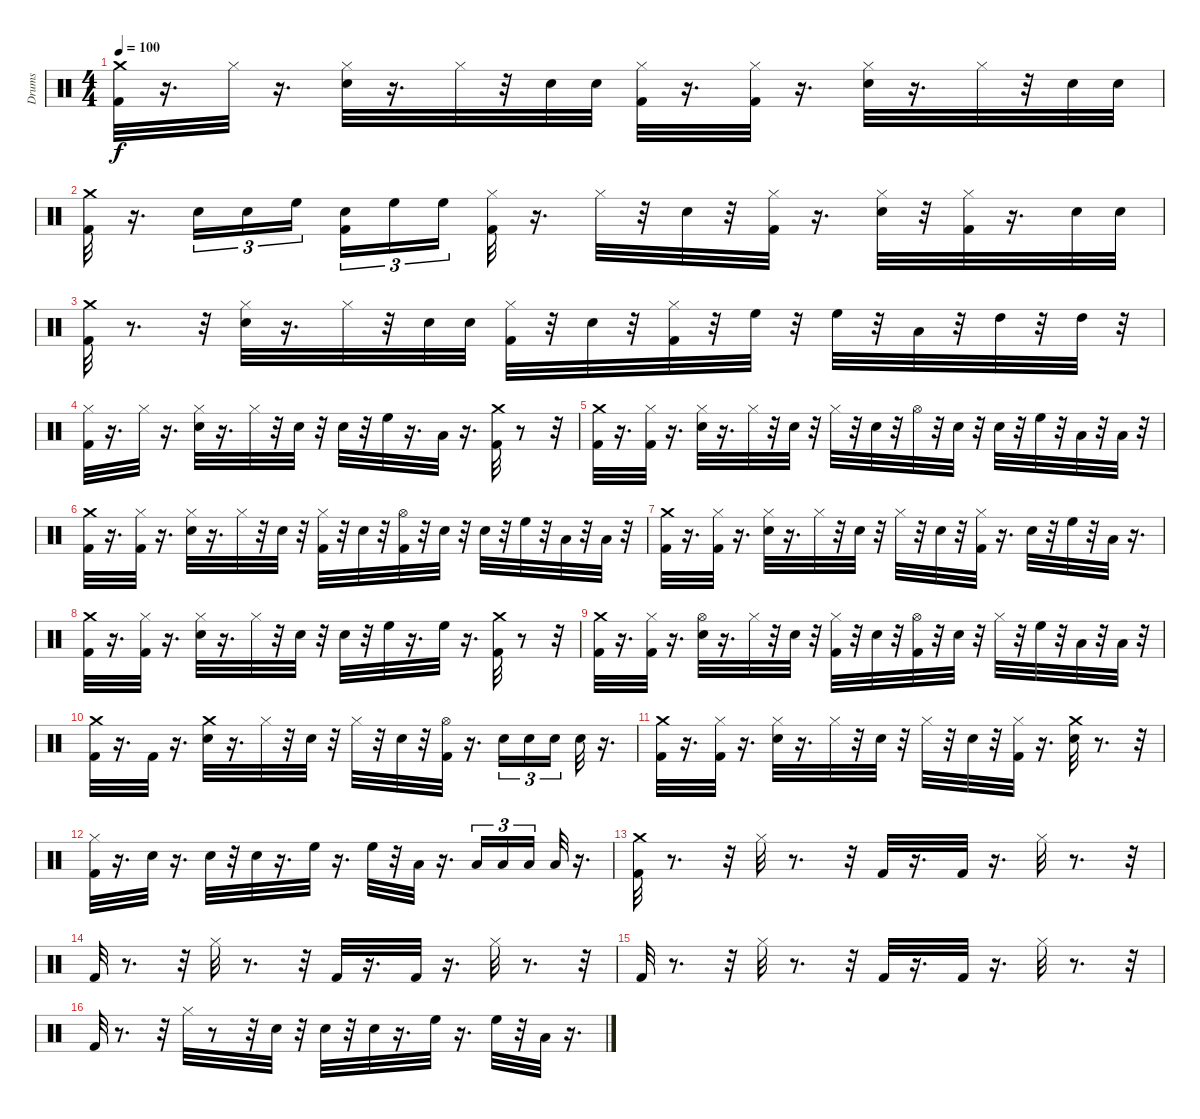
\track ("Drums" "Drums") {instrument percussion}
\staff {score}
\articulation defaults
\ts (4 4)
\tempo 100
\clef neutral
\ks c
("Kick (hit) 2" "Crash medium (hit)").32{dy f} r.16{d} "Hi-Hat (closed)".32 r.16{d} ("Hi-Hat (closed)" "Snare (hit) 2").32 r.16{d} "Hi-Hat (closed)".32 r.32 "Snare (hit) 2".32 "Snare (hit) 2".32 ("Kick (hit) 2" "Hi-Hat (closed)").32 r.16{d} ("Kick (hit) 2" "Hi-Hat (closed)").32 r.16{d} ("Hi-Hat (closed)" "Snare (hit) 2").32 r.16{d} "Hi-Hat (closed)".32 r.32 "Snare (hit) 2".32 "Snare (hit) 2".32 |
("Kick (hit) 2" "Crash medium (hit)").32 r.16{d} "Snare (hit) 2".16{tu (3 2)} "Electric Snare (hit)".16{tu (3 2)} "High Floor Tom (hit)".16{tu (3 2)} ("Kick (hit) 2" "Snare (hit) 2").16{tu (3 2)} "High Floor Tom (hit)".16{tu (3 2)} "High Floor Tom (hit)".16{tu (3 2)} ("Kick (hit) 2" "Hi-Hat (closed)").32 r.16{d} "Hi-Hat (closed)".32 r.32 "Snare (hit) 2".32 r.32 ("Kick (hit) 2" "Hi-Hat (closed)").32 r.16{d} ("Hi-Hat (closed)" "Snare (hit) 2").32 r.32 ("Kick (hit) 2" "Hi-Hat (closed)").32 r.16{d} "Snare (hit) 2".32 "Snare (hit) 2".32 |
("Kick (hit) 2" "Crash medium (hit)").32 r.8{d} r.32 ("Hi-Hat (closed)" "Snare (hit) 2").32 r.16{d} "Hi-Hat (closed)".32 r.32 "Snare (hit) 2".32 "Snare (hit) 2".32 ("Kick (hit) 2" "Hi-Hat (closed)").32 r.32 "Snare (hit) 2".32 r.32 ("Kick (hit) 2" "Hi-Hat (closed)").32 r.32 "High Floor Tom (hit)".32 r.32 "High Floor Tom (hit)".32 r.32 "Low Tom (hit)".32 r.32 "High Tom (hit)".32 r.32 "High Tom (hit)".32 r.32 |
("Kick (hit) 2" "Hi-Hat (closed)").32 r.16{d} "Hi-Hat (closed)".32 r.16{d} ("Hi-Hat (closed)" "Snare (hit) 2").32 r.16{d} "Hi-Hat (closed)".32 r.32 "Snare (hit) 2".32 r.32 "Snare (hit) 2".32 r.32 "High Floor Tom (hit)".32 r.16{d} "Low Tom (hit)".32 r.16{d} ("Kick (hit) 2" "Crash medium (hit)").32 r.8 r.32 |
("Crash medium (hit)" "Kick (hit) 2").32 r.16{d} ("Kick (hit) 2" "Hi-Hat (closed)").32 r.16{d} ("Hi-Hat (closed)" "Snare (hit) 2").32 r.16{d} "Hi-Hat (closed)".32 r.32 "Snare (hit) 2".32 r.32 "Hi-Hat (closed)".32 r.32 "Snare (hit) 2".32 r.32 "Hi-Hat (open)".32 r.32 "Snare (hit) 2".32 r.32 "Snare (hit) 2".32 r.32 "High Floor Tom (hit)".32 r.32 "Low Tom (hit)".32 r.32 "Low Tom (hit)".32 r.32 |
("Kick (hit) 2" "Crash medium (hit)").32 r.16{d} ("Kick (hit) 2" "Hi-Hat (closed)").32 r.16{d} ("Hi-Hat (closed)" "Snare (hit) 2").32 r.16{d} "Hi-Hat (closed)".32 r.32 "Snare (hit) 2".32 r.32 ("Kick (hit) 2" "Hi-Hat (closed)").32 r.32 "Snare (hit) 2".32 r.32 ("Kick (hit) 2" "Hi-Hat (open)").32 r.32 "Snare (hit) 2".32 r.32 "Snare (hit) 2".32 r.32 "High Floor Tom (hit)".32 r.32 "Low Tom (hit)".32 r.32 "Low Tom (hit)".32 r.32 |
("Kick (hit) 2" "Crash medium (hit)").32 r.16{d} ("Kick (hit) 2" "Hi-Hat (closed)").32 r.16{d} ("Hi-Hat (closed)" "Snare (hit) 2").32 r.16{d} "Hi-Hat (closed)".32 r.32 "Snare (hit) 2".32 r.32 "Hi-Hat (closed)".32 r.32 "Snare (hit) 2".32 r.32 ("Kick (hit) 2" "Hi-Hat (closed)").32 r.16{d} "Snare (hit) 2".32 r.32 "High Floor Tom (hit)".32 r.32 "Low Tom (hit)".32 r.16{d} |
("Kick (hit) 2" "Crash medium (hit)").32 r.16{d} ("Kick (hit) 2" "Hi-Hat (closed)").32 r.16{d} ("Hi-Hat (closed)" "Snare (hit) 2").32 r.16{d} "Hi-Hat (closed)".32 r.32 "Snare (hit) 2".32 r.32 "Snare (hit) 2".32 r.32 "High Floor Tom (hit)".32 r.16{d} "High Floor Tom (hit)".32 r.16{d} ("Crash medium (hit)" "Kick (hit) 2").32 r.8 r.32 |
("Kick (hit) 2" "Crash medium (hit)").32 r.16{d} ("Kick (hit) 2" "Hi-Hat (closed)").32 r.16{d} ("Hi-Hat (open)" "Snare (hit) 2").32 r.16{d} "Hi-Hat (closed)".32 r.32 "Snare (hit) 2".32 r.32 ("Kick (hit) 2" "Hi-Hat (closed)").32 r.32 "Snare (hit) 2".32 r.32 ("Kick (hit) 2" "Hi-Hat (open)").32 r.32 "Snare (hit) 2".32 r.32 "Hi-Hat (closed)".32 r.32 "High Floor Tom (hit)".32 r.32 "Low Tom (hit)".32 r.32 "Low Tom (hit)".32 r.32 |
("Crash medium (hit)" "Kick (hit) 2").32 r.16{d} "Kick (hit) 2".32 r.16{d} ("Crash medium (hit)" "Snare (hit) 2").32 r.16{d} "Hi-Hat (closed)".32 r.32 "Snare (hit) 2".32 r.32 "Hi-Hat (closed)".32 r.32 "Snare (hit) 2".32 r.32 ("Hi-Hat (open)" "Kick (hit) 2").32 r.16{d} "Snare (hit) 2".16{tu (3 2)} "Snare (hit) 2".16{tu (3 2)} "Snare (hit) 2".16{tu (3 2)} "Snare (hit) 2".32 r.16{d} |
("Kick (hit) 2" "Crash medium (hit)").32 r.16{d} ("Kick (hit) 2" "Hi-Hat (closed)").32 r.16{d} ("Hi-Hat (closed)" "Snare (hit) 2").32 r.16{d} "Hi-Hat (closed)".32 r.32 "Snare (hit) 2".32 r.32 "Hi-Hat (closed)".32 r.32 "Snare (hit) 2".32 r.32 ("Kick (hit) 2" "Hi-Hat (closed)").32 r.16{d} ("Crash medium (hit)" "Snare (hit) 2").32 r.8{d} r.32 |
("Kick (hit) 2" "Hi-Hat (closed)").32 r.16{d} "Snare (hit) 2".32 r.16{d} "Snare (hit) 2".32 r.32 "Electric Snare (hit)".32 r.16{d} "High Floor Tom (hit)".32 r.16{d} "High Floor Tom (hit)".32 r.32 "Low Tom (hit)".32 r.16{d} "Low Tom (hit)".16{tu (3 2)} "Low Tom (hit)".16{tu (3 2)} "Low Tom (hit)".16{tu (3 2)} "Low Tom (hit)".32 r.16{d} |
("Kick (hit) 2" "Crash medium (hit)").32 r.8{d} r.32 "Hi-Hat (closed)".32 r.8{d} r.32 "Kick (hit) 2".32 r.16{d} "Kick (hit) 2".32 r.16{d} "Hi-Hat (closed)".32 r.8{d} r.32 |
"Kick (hit) 2".32 r.8{d} r.32 "Hi-Hat (closed)".32 r.8{d} r.32 "Kick (hit) 2".32 r.16{d} "Kick (hit) 2".32 r.16{d} "Hi-Hat (closed)".32 r.8{d} r.32 |
"Kick (hit) 2".32 r.8{d} r.32 "Hi-Hat (closed)".32 r.8{d} r.32 "Kick (hit) 2".32 r.16{d} "Kick (hit) 2".32 r.16{d} "Hi-Hat (closed)".32 r.8{d} r.32 |
"Kick (hit) 2".32 r.8{d} r.32 "Hi-Hat (closed)".32 r.8 r.32 "Snare (hit) 2".32 r.32 "Snare (hit) 2".32 r.32 "Electric Snare (hit)".32 r.16{d} "High Floor Tom (hit)".32 r.16{d} "High Floor Tom (hit)".32 r.32 "Low Tom (hit)".32 r.16{d}
